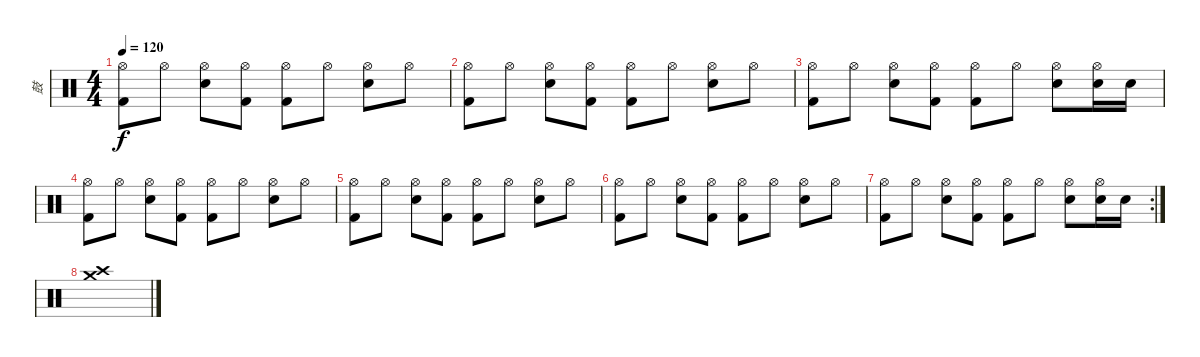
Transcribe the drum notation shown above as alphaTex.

\track ("鼓" "鼓") {instrument percussion}
\staff {score}
\articulation defaults
\ts (4 4)
\tempo 120
\clef neutral
\ks c
("Hi-Hat (open)" "Kick (hit) 2").8{dy f} "Hi-Hat (open)".8 ("Hi-Hat (open)" "Electric Snare (hit)").8 ("Hi-Hat (open)" "Kick (hit) 2").8 ("Hi-Hat (open)" "Kick (hit) 2").8 "Hi-Hat (open)".8 ("Hi-Hat (open)" "Electric Snare (hit)").8 "Hi-Hat (open)".8 |
("Hi-Hat (open)" "Kick (hit) 2").8 "Hi-Hat (open)".8 ("Hi-Hat (open)" "Electric Snare (hit)").8 ("Hi-Hat (open)" "Kick (hit) 2").8 ("Hi-Hat (open)" "Kick (hit) 2").8 "Hi-Hat (open)".8 ("Hi-Hat (open)" "Electric Snare (hit)").8 "Hi-Hat (open)".8 |
("Hi-Hat (open)" "Kick (hit) 2").8 "Hi-Hat (open)".8 ("Hi-Hat (open)" "Electric Snare (hit)").8 ("Hi-Hat (open)" "Kick (hit) 2").8 ("Hi-Hat (open)" "Kick (hit) 2").8 "Hi-Hat (open)".8 ("Hi-Hat (open)" "Electric Snare (hit)").8 ("Hi-Hat (open)" "Electric Snare (hit)").16 "Electric Snare (hit)".16 |
("Hi-Hat (open)" "Kick (hit) 2").8 "Hi-Hat (open)".8 ("Hi-Hat (open)" "Electric Snare (hit)").8 ("Hi-Hat (open)" "Kick (hit) 2").8 ("Hi-Hat (open)" "Kick (hit) 2").8 "Hi-Hat (open)".8 ("Hi-Hat (open)" "Electric Snare (hit)").8 "Hi-Hat (open)".8 |
("Hi-Hat (open)" "Kick (hit) 2").8 "Hi-Hat (open)".8 ("Hi-Hat (open)" "Electric Snare (hit)").8 ("Hi-Hat (open)" "Kick (hit) 2").8 ("Hi-Hat (open)" "Kick (hit) 2").8 "Hi-Hat (open)".8 ("Hi-Hat (open)" "Electric Snare (hit)").8 "Hi-Hat (open)".8 |
("Hi-Hat (open)" "Kick (hit) 2").8 "Hi-Hat (open)".8 ("Hi-Hat (open)" "Electric Snare (hit)").8 ("Hi-Hat (open)" "Kick (hit) 2").8 ("Hi-Hat (open)" "Kick (hit) 2").8 "Hi-Hat (open)".8 ("Hi-Hat (open)" "Electric Snare (hit)").8 "Hi-Hat (open)".8 |
\rc 2
("Hi-Hat (open)" "Kick (hit) 2").8 "Hi-Hat (open)".8 ("Hi-Hat (open)" "Electric Snare (hit)").8 ("Hi-Hat (open)" "Kick (hit) 2").8 ("Hi-Hat (open)" "Kick (hit) 2").8 "Hi-Hat (open)".8 ("Hi-Hat (open)" "Electric Snare (hit)").8 ("Hi-Hat (open)" "Electric Snare (hit)").16 "Electric Snare (hit)".16 |
("Crash high (hit)" "Crash medium (hit)").1
